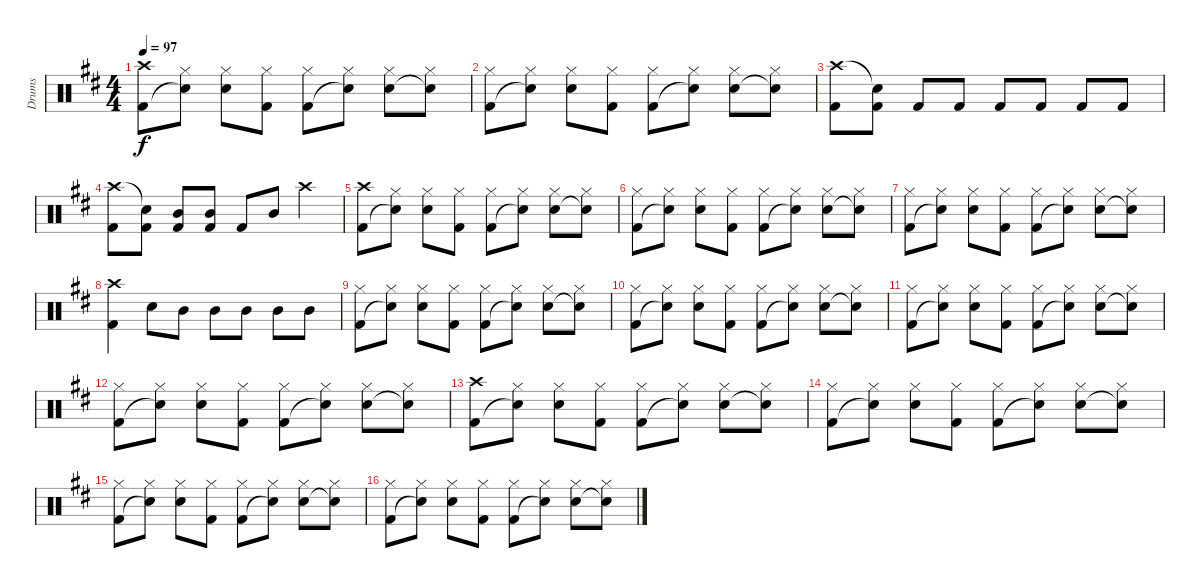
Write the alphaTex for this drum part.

\track ("Drums" "Drums") {instrument percussion}
\staff {score}
\articulation defaults
\ts (4 4)
\tempo 97
\clef neutral
\ks d
("Crash high (hit)" "Kick (hit) 2").8{dy f} ("Hi-Hat (closed)" "Snare (hit)"{t}).8 ("Hi-Hat (closed)" "Snare (hit) 2").8 ("Hi-Hat (closed)" "Kick (hit) 2").8 ("Hi-Hat (closed)" "Kick (hit) 2").8 ("Hi-Hat (closed)" "Snare (hit)"{t}).8 ("Hi-Hat (closed)" "Snare (hit) 2").8 ("Hi-Hat (closed)" "Snare (hit)"{t}).8 |
("Hi-Hat (closed)" "Kick (hit) 2").8 ("Hi-Hat (closed)" "Snare (hit)"{t}).8 ("Hi-Hat (closed)" "Snare (hit) 2").8 ("Hi-Hat (closed)" "Kick (hit) 2").8 ("Hi-Hat (closed)" "Kick (hit) 2").8 ("Hi-Hat (closed)" "Snare (hit)"{t}).8 ("Hi-Hat (closed)" "Snare (hit) 2").8 ("Hi-Hat (closed)" "Snare (hit)"{t}).8 |
("Crash high (hit)" "Kick (hit) 2").8 ("Snare (hit)"{t} "Kick (hit) 2").8 "Kick (hit) 2".8 "Kick (hit) 2".8 "Kick (hit) 2".8 "Kick (hit) 2".8 "Kick (hit) 2".8 "Kick (hit) 2".8 |
("Crash high (hit)" "Kick (hit) 2").8 ("Snare (hit)"{t} "Kick (hit) 2").8 ("Mid Tom (hit)" "Kick (hit) 2").8 ("Mid Tom (hit)" "Kick (hit) 2").8 "Kick (hit) 2".8 "Mid Tom (hit)".8 "Crash high (hit)".4 |
("Crash high (hit)" "Kick (hit) 2").8 ("Hi-Hat (closed)" "Snare (hit)"{t}).8 ("Hi-Hat (closed)" "Snare (hit) 2").8 ("Hi-Hat (closed)" "Kick (hit) 2").8 ("Hi-Hat (closed)" "Kick (hit) 2").8 ("Hi-Hat (closed)" "Snare (hit)"{t}).8 ("Hi-Hat (closed)" "Snare (hit) 2").8 ("Hi-Hat (closed)" "Snare (hit)"{t}).8 |
("Hi-Hat (closed)" "Kick (hit) 2").8 ("Hi-Hat (closed)" "Snare (hit)"{t}).8 ("Hi-Hat (closed)" "Snare (hit) 2").8 ("Hi-Hat (closed)" "Kick (hit) 2").8 ("Hi-Hat (closed)" "Kick (hit) 2").8 ("Hi-Hat (closed)" "Snare (hit)"{t}).8 ("Hi-Hat (closed)" "Snare (hit) 2").8 ("Hi-Hat (closed)" "Snare (hit)"{t}).8 |
("Hi-Hat (closed)" "Kick (hit) 2").8 ("Hi-Hat (closed)" "Snare (hit)"{t}).8 ("Hi-Hat (closed)" "Snare (hit) 2").8 ("Hi-Hat (closed)" "Kick (hit) 2").8 ("Hi-Hat (closed)" "Kick (hit) 2").8 ("Hi-Hat (closed)" "Snare (hit)"{t}).8 ("Hi-Hat (closed)" "Snare (hit) 2").8 ("Hi-Hat (closed)" "Snare (hit)"{t}).8 |
("Crash high (hit)" "Kick (hit) 2").4 "Snare (hit) 2".8 "Mid Tom (hit)".8 "Mid Tom (hit)".8 "Mid Tom (hit)".8 "Mid Tom (hit)".8 "Mid Tom (hit)".8 |
("Hi-Hat (closed)" "Kick (hit) 2").8 ("Hi-Hat (closed)" "Snare (hit)"{t}).8 ("Hi-Hat (closed)" "Snare (hit) 2").8 ("Hi-Hat (closed)" "Kick (hit) 2").8 ("Hi-Hat (closed)" "Kick (hit) 2").8 ("Hi-Hat (closed)" "Snare (hit)"{t}).8 ("Hi-Hat (closed)" "Snare (hit) 2").8 ("Hi-Hat (closed)" "Snare (hit)"{t}).8 |
("Hi-Hat (closed)" "Kick (hit) 2").8 ("Hi-Hat (closed)" "Snare (hit)"{t}).8 ("Hi-Hat (closed)" "Snare (hit) 2").8 ("Hi-Hat (closed)" "Kick (hit) 2").8 ("Hi-Hat (closed)" "Kick (hit) 2").8 ("Hi-Hat (closed)" "Snare (hit)"{t}).8 ("Hi-Hat (closed)" "Snare (hit) 2").8 ("Hi-Hat (closed)" "Snare (hit)"{t}).8 |
("Hi-Hat (closed)" "Kick (hit) 2").8 ("Hi-Hat (closed)" "Snare (hit)"{t}).8 ("Hi-Hat (closed)" "Snare (hit) 2").8 ("Hi-Hat (closed)" "Kick (hit) 2").8 ("Hi-Hat (closed)" "Kick (hit) 2").8 ("Hi-Hat (closed)" "Snare (hit)"{t}).8 ("Hi-Hat (closed)" "Snare (hit) 2").8 ("Hi-Hat (closed)" "Snare (hit)"{t}).8 |
("Hi-Hat (closed)" "Kick (hit) 2").8 ("Hi-Hat (closed)" "Snare (hit)"{t}).8 ("Hi-Hat (closed)" "Snare (hit) 2").8 ("Hi-Hat (closed)" "Kick (hit) 2").8 ("Hi-Hat (closed)" "Kick (hit) 2").8 ("Hi-Hat (closed)" "Snare (hit)"{t}).8 ("Hi-Hat (closed)" "Snare (hit) 2").8 ("Hi-Hat (closed)" "Snare (hit)"{t}).8 |
("Crash high (hit)" "Kick (hit) 2").8 ("Hi-Hat (closed)" "Snare (hit)"{t}).8 ("Hi-Hat (closed)" "Snare (hit) 2").8 ("Hi-Hat (closed)" "Kick (hit) 2").8 ("Hi-Hat (closed)" "Kick (hit) 2").8 ("Hi-Hat (closed)" "Snare (hit)"{t}).8 ("Hi-Hat (closed)" "Snare (hit) 2").8 ("Hi-Hat (closed)" "Snare (hit)"{t}).8 |
("Hi-Hat (closed)" "Kick (hit) 2").8 ("Hi-Hat (closed)" "Snare (hit)"{t}).8 ("Hi-Hat (closed)" "Snare (hit) 2").8 ("Hi-Hat (closed)" "Kick (hit) 2").8 ("Hi-Hat (closed)" "Kick (hit) 2").8 ("Hi-Hat (closed)" "Snare (hit)"{t}).8 ("Hi-Hat (closed)" "Snare (hit) 2").8 ("Hi-Hat (closed)" "Snare (hit)"{t}).8 |
("Hi-Hat (closed)" "Kick (hit) 2").8 ("Hi-Hat (closed)" "Snare (hit)"{t}).8 ("Hi-Hat (closed)" "Snare (hit) 2").8 ("Hi-Hat (closed)" "Kick (hit) 2").8 ("Hi-Hat (closed)" "Kick (hit) 2").8 ("Hi-Hat (closed)" "Snare (hit)"{t}).8 ("Hi-Hat (closed)" "Snare (hit) 2").8 ("Hi-Hat (closed)" "Snare (hit)"{t}).8 |
("Hi-Hat (closed)" "Kick (hit) 2").8 ("Hi-Hat (closed)" "Snare (hit)"{t}).8 ("Hi-Hat (closed)" "Snare (hit) 2").8 ("Hi-Hat (closed)" "Kick (hit) 2").8 ("Hi-Hat (closed)" "Kick (hit) 2").8 ("Hi-Hat (closed)" "Snare (hit)"{t}).8 ("Hi-Hat (closed)" "Snare (hit) 2").8 ("Hi-Hat (closed)" "Snare (hit)"{t}).8
